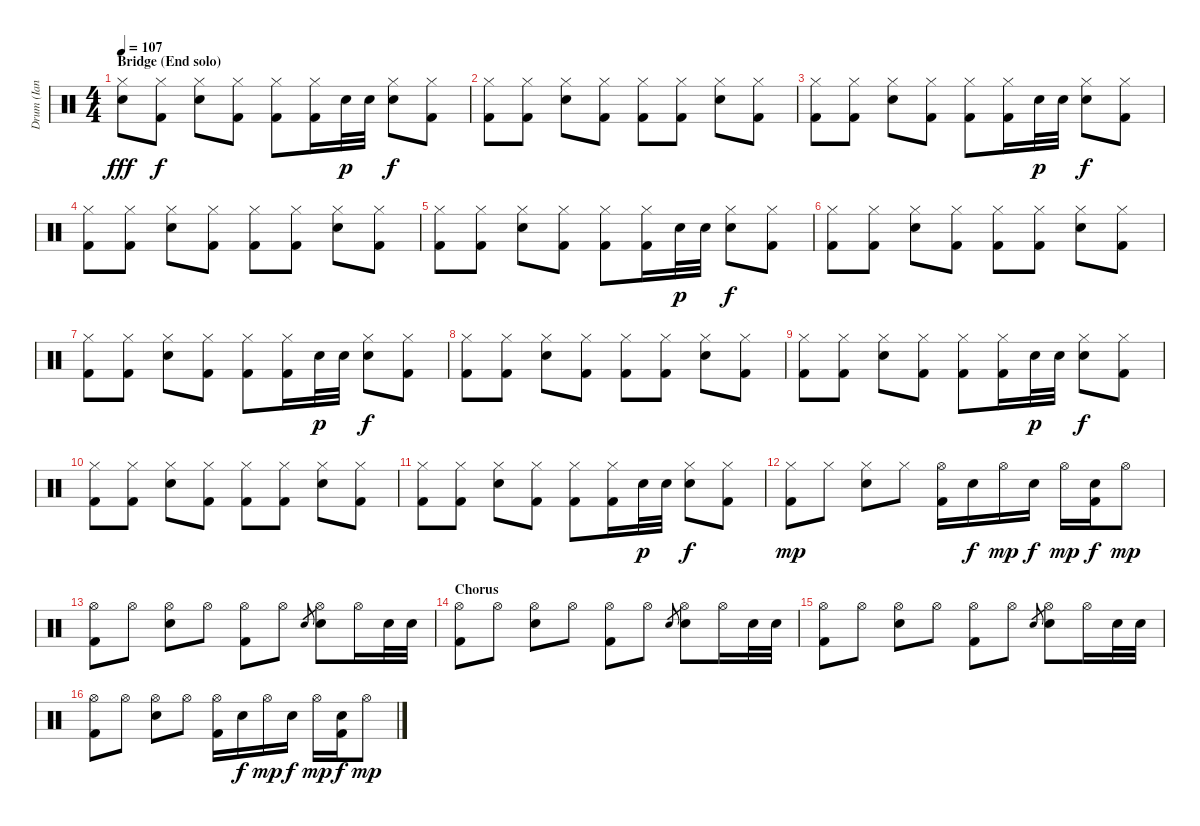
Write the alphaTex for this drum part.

\track ("Drum (Ian Paice)" "Drum (Ian ") {instrument percussion}
\staff {score}
\articulation defaults
\ts (4 4)
\section ("" "Bridge (End solo)")
\tempo 107
\clef neutral
\ks c
("Hi-Hat (closed)" "Snare (hit) 2").8{dy fff volume 7} ("Hi-Hat (closed)" "Kick (hit) 2").8{dy f} ("Hi-Hat (closed)" "Snare (hit) 2").8 ("Hi-Hat (closed)" "Kick (hit) 2").8 ("Hi-Hat (closed)" "Kick (hit) 2").8 ("Hi-Hat (closed)" "Kick (hit) 2").16 "Snare (hit) 2".32{dy p} "Snare (hit) 2".32 ("Hi-Hat (closed)" "Snare (hit) 2").8{dy f} ("Hi-Hat (closed)" "Kick (hit) 2").8 |
("Hi-Hat (closed)" "Kick (hit) 2").8 ("Hi-Hat (closed)" "Kick (hit) 2").8 ("Hi-Hat (closed)" "Snare (hit) 2").8 ("Hi-Hat (closed)" "Kick (hit) 2").8 ("Hi-Hat (closed)" "Kick (hit) 2").8 ("Hi-Hat (closed)" "Kick (hit) 2").8 ("Hi-Hat (closed)" "Snare (hit) 2").8 ("Hi-Hat (closed)" "Kick (hit) 2").8 |
("Hi-Hat (closed)" "Kick (hit) 2").8 ("Hi-Hat (closed)" "Kick (hit) 2").8 ("Hi-Hat (closed)" "Snare (hit) 2").8 ("Hi-Hat (closed)" "Kick (hit) 2").8 ("Hi-Hat (closed)" "Kick (hit) 2").8 ("Hi-Hat (closed)" "Kick (hit) 2").16 "Snare (hit) 2".32{dy p} "Snare (hit) 2".32 ("Hi-Hat (closed)" "Snare (hit) 2").8{dy f} ("Hi-Hat (closed)" "Kick (hit) 2").8 |
("Hi-Hat (closed)" "Kick (hit) 2").8 ("Hi-Hat (closed)" "Kick (hit) 2").8 ("Hi-Hat (closed)" "Snare (hit) 2").8 ("Hi-Hat (closed)" "Kick (hit) 2").8 ("Hi-Hat (closed)" "Kick (hit) 2").8 ("Hi-Hat (closed)" "Kick (hit) 2").8 ("Hi-Hat (closed)" "Snare (hit) 2").8 ("Hi-Hat (closed)" "Kick (hit) 2").8 |
("Hi-Hat (closed)" "Kick (hit) 2").8 ("Hi-Hat (closed)" "Kick (hit) 2").8 ("Hi-Hat (closed)" "Snare (hit) 2").8 ("Hi-Hat (closed)" "Kick (hit) 2").8 ("Hi-Hat (closed)" "Kick (hit) 2").8 ("Hi-Hat (closed)" "Kick (hit) 2").16 "Snare (hit) 2".32{dy p} "Snare (hit) 2".32 ("Hi-Hat (closed)" "Snare (hit) 2").8{dy f} ("Hi-Hat (closed)" "Kick (hit) 2").8 |
("Hi-Hat (closed)" "Kick (hit) 2").8 ("Hi-Hat (closed)" "Kick (hit) 2").8 ("Hi-Hat (closed)" "Snare (hit) 2").8 ("Hi-Hat (closed)" "Kick (hit) 2").8 ("Hi-Hat (closed)" "Kick (hit) 2").8 ("Hi-Hat (closed)" "Kick (hit) 2").8 ("Hi-Hat (closed)" "Snare (hit) 2").8 ("Hi-Hat (closed)" "Kick (hit) 2").8 |
("Hi-Hat (closed)" "Kick (hit) 2").8 ("Hi-Hat (closed)" "Kick (hit) 2").8 ("Hi-Hat (closed)" "Snare (hit) 2").8 ("Hi-Hat (closed)" "Kick (hit) 2").8 ("Hi-Hat (closed)" "Kick (hit) 2").8 ("Hi-Hat (closed)" "Kick (hit) 2").16 "Snare (hit) 2".32{dy p} "Snare (hit) 2".32 ("Hi-Hat (closed)" "Snare (hit) 2").8{dy f} ("Hi-Hat (closed)" "Kick (hit) 2").8 |
("Hi-Hat (closed)" "Kick (hit) 2").8 ("Hi-Hat (closed)" "Kick (hit) 2").8 ("Hi-Hat (closed)" "Snare (hit) 2").8 ("Hi-Hat (closed)" "Kick (hit) 2").8 ("Hi-Hat (closed)" "Kick (hit) 2").8 ("Hi-Hat (closed)" "Kick (hit) 2").8 ("Hi-Hat (closed)" "Snare (hit) 2").8 ("Hi-Hat (closed)" "Kick (hit) 2").8 |
("Hi-Hat (closed)" "Kick (hit) 2").8 ("Hi-Hat (closed)" "Kick (hit) 2").8 ("Hi-Hat (closed)" "Snare (hit) 2").8 ("Hi-Hat (closed)" "Kick (hit) 2").8 ("Hi-Hat (closed)" "Kick (hit) 2").8 ("Hi-Hat (closed)" "Kick (hit) 2").16 "Snare (hit) 2".32{dy p} "Snare (hit) 2".32 ("Hi-Hat (closed)" "Snare (hit) 2").8{dy f} ("Hi-Hat (closed)" "Kick (hit) 2").8 |
("Hi-Hat (closed)" "Kick (hit) 2").8 ("Hi-Hat (closed)" "Kick (hit) 2").8 ("Hi-Hat (closed)" "Snare (hit) 2").8 ("Hi-Hat (closed)" "Kick (hit) 2").8 ("Hi-Hat (closed)" "Kick (hit) 2").8 ("Hi-Hat (closed)" "Kick (hit) 2").8 ("Hi-Hat (closed)" "Snare (hit) 2").8 ("Hi-Hat (closed)" "Kick (hit) 2").8 |
("Hi-Hat (closed)" "Kick (hit) 2").8 ("Hi-Hat (closed)" "Kick (hit) 2").8 ("Hi-Hat (closed)" "Snare (hit) 2").8 ("Hi-Hat (closed)" "Kick (hit) 2").8 ("Hi-Hat (closed)" "Kick (hit) 2").8 ("Hi-Hat (closed)" "Kick (hit) 2").16 "Snare (hit) 2".32{dy p} "Snare (hit) 2".32 ("Hi-Hat (closed)" "Snare (hit) 2").8{dy f} ("Hi-Hat (closed)" "Kick (hit) 2").8 |
("Hi-Hat (closed)" "Kick (hit) 2").8{dy mp} "Hi-Hat (closed)".8 ("Hi-Hat (closed)" "Snare (hit) 2").8 "Hi-Hat (closed)".8 ("Hi-Hat (open)" "Kick (hit) 2").16{volume 11} "Snare (hit) 2".16{dy f} "Hi-Hat (open)".16{dy mp} "Snare (hit) 2".16{dy f} "Hi-Hat (open)".16{dy mp} ("Snare (hit) 2" "Kick (hit) 2").16{dy f} "Hi-Hat (open)".8{dy mp} |
("Hi-Hat (open)" "Kick (hit) 2").8 "Hi-Hat (open)".8 ("Hi-Hat (open)" "Snare (hit) 2").8 "Hi-Hat (open)".8 ("Hi-Hat (open)" "Kick (hit) 2").8 "Hi-Hat (open)".8 "Snare (hit) 2".8{gr} ("Hi-Hat (open)" "Snare (hit) 2").8 "Hi-Hat (open)".16 "Snare (hit) 2".32 "Snare (hit) 2".32 |
\section ("" "Chorus")
("Hi-Hat (open)" "Kick (hit) 2").8 "Hi-Hat (open)".8 ("Hi-Hat (open)" "Snare (hit) 2").8 "Hi-Hat (open)".8 ("Hi-Hat (open)" "Kick (hit) 2").8 "Hi-Hat (open)".8 "Snare (hit) 2".8{gr} ("Hi-Hat (open)" "Snare (hit) 2").8 "Hi-Hat (open)".16 "Snare (hit) 2".32 "Snare (hit) 2".32 |
("Hi-Hat (open)" "Kick (hit) 2").8 "Hi-Hat (open)".8 ("Hi-Hat (open)" "Snare (hit) 2").8 "Hi-Hat (open)".8 ("Hi-Hat (open)" "Kick (hit) 2").8 "Hi-Hat (open)".8 "Snare (hit) 2".8{gr} ("Hi-Hat (open)" "Snare (hit) 2").8 "Hi-Hat (open)".16 "Snare (hit) 2".32 "Snare (hit) 2".32 |
("Hi-Hat (open)" "Kick (hit) 2").8 "Hi-Hat (open)".8 ("Hi-Hat (open)" "Snare (hit) 2").8 "Hi-Hat (open)".8 ("Hi-Hat (open)" "Kick (hit) 2").16 "Snare (hit) 2".16{dy f} "Hi-Hat (open)".16{dy mp} "Snare (hit) 2".16{dy f} "Hi-Hat (open)".16{dy mp} ("Snare (hit) 2" "Kick (hit) 2").16{dy f} "Hi-Hat (open)".8{dy mp}
